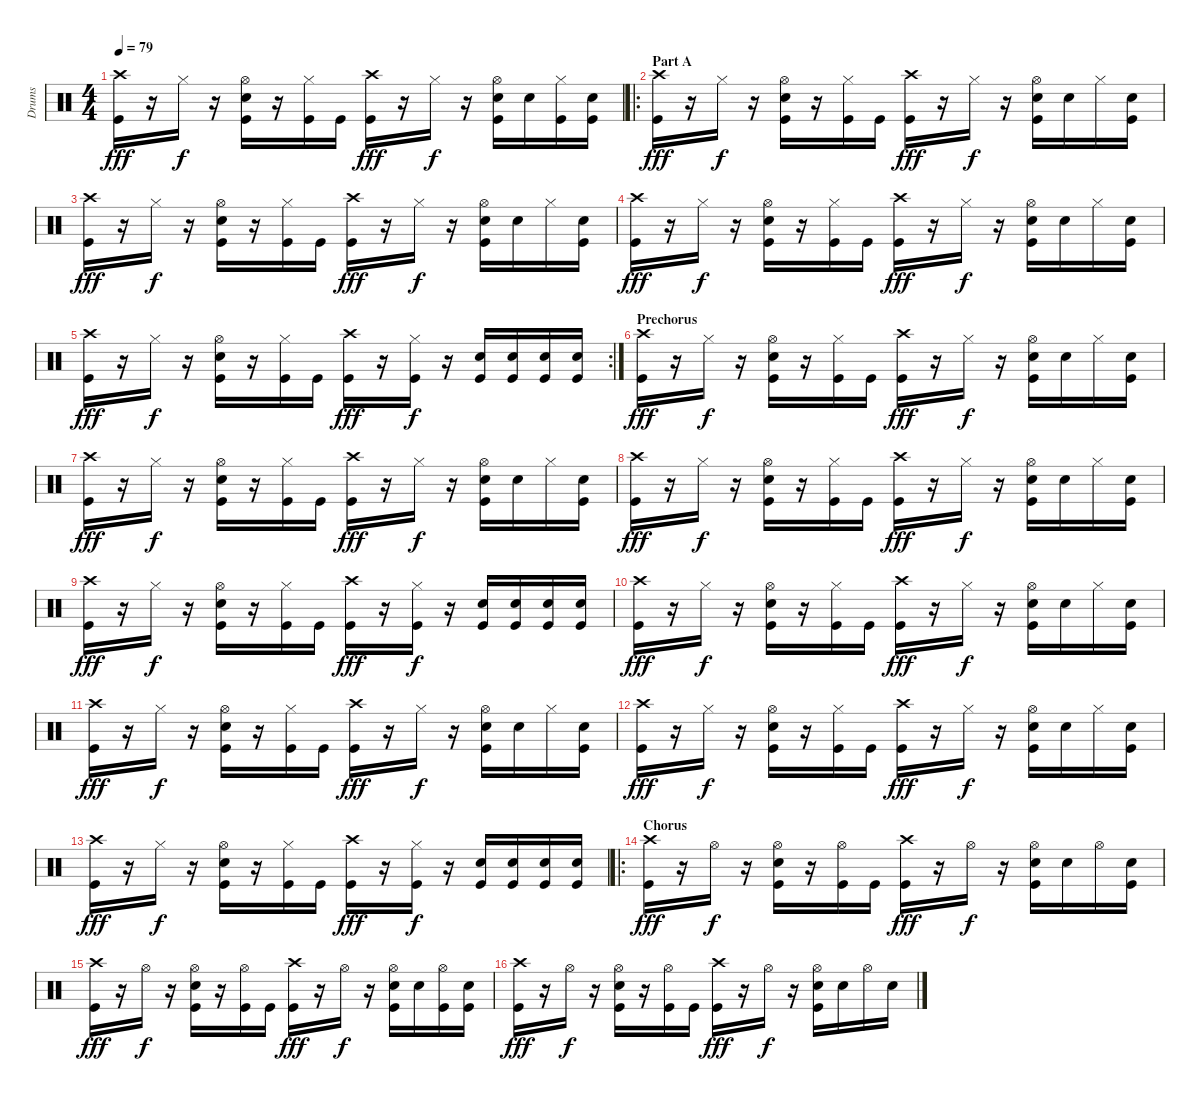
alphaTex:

\track ("Drums" "Drums") {instrument percussion}
\staff {score}
\articulation defaults
\ts (4 4)
\tempo 79
\clef neutral
\ks c
("Crash high (hit)" "Kick (hit)").16{dy fff} r.16 "Hi-Hat (closed)".16{dy f} r.16 ("Hi-Hat (open)" "Electric Snare (hit)" "Kick (hit)").16 r.16 ("Hi-Hat (closed)" "Kick (hit)").16 "Kick (hit)".16 ("Crash high (hit)" "Kick (hit)").16{dy fff} r.16 "Hi-Hat (closed)".16{dy f} r.16 ("Hi-Hat (open)" "Electric Snare (hit)" "Kick (hit)").16 "Electric Snare (hit)".16 ("Hi-Hat (closed)" "Kick (hit)").16 ("Electric Snare (hit)" "Kick (hit)").16 |
\ro
\section ("" "Part A")
("Crash high (hit)" "Kick (hit)").16{dy fff volume 11} r.16 "Hi-Hat (closed)".16{dy f} r.16 ("Hi-Hat (open)" "Electric Snare (hit)" "Kick (hit)").16 r.16 ("Hi-Hat (closed)" "Kick (hit)").16 "Kick (hit)".16 ("Crash high (hit)" "Kick (hit)").16{dy fff} r.16 "Hi-Hat (closed)".16{dy f} r.16 ("Hi-Hat (open)" "Electric Snare (hit)" "Kick (hit)").16 "Electric Snare (hit)".16 "Hi-Hat (closed)".16 ("Electric Snare (hit)" "Kick (hit)").16 |
("Crash high (hit)" "Kick (hit)").16{dy fff volume 11} r.16 "Hi-Hat (closed)".16{dy f} r.16 ("Hi-Hat (open)" "Electric Snare (hit)" "Kick (hit)").16 r.16 ("Hi-Hat (closed)" "Kick (hit)").16 "Kick (hit)".16 ("Crash high (hit)" "Kick (hit)").16{dy fff} r.16 "Hi-Hat (closed)".16{dy f} r.16 ("Hi-Hat (open)" "Electric Snare (hit)" "Kick (hit)").16 "Electric Snare (hit)".16 "Hi-Hat (closed)".16 ("Electric Snare (hit)" "Kick (hit)").16 |
("Crash high (hit)" "Kick (hit)").16{dy fff volume 11} r.16 "Hi-Hat (closed)".16{dy f} r.16 ("Hi-Hat (open)" "Electric Snare (hit)" "Kick (hit)").16 r.16 ("Hi-Hat (closed)" "Kick (hit)").16 "Kick (hit)".16 ("Crash high (hit)" "Kick (hit)").16{dy fff} r.16 "Hi-Hat (closed)".16{dy f} r.16 ("Hi-Hat (open)" "Electric Snare (hit)" "Kick (hit)").16 "Electric Snare (hit)".16 "Hi-Hat (closed)".16 ("Electric Snare (hit)" "Kick (hit)").16 |
\rc 2
("Crash high (hit)" "Kick (hit)").16{dy fff} r.16 "Hi-Hat (closed)".16{dy f} r.16 ("Hi-Hat (open)" "Electric Snare (hit)" "Kick (hit)").16 r.16 ("Hi-Hat (closed)" "Kick (hit)").16 "Kick (hit)".16 ("Crash high (hit)" "Kick (hit)").16{dy fff} r.16 ("Hi-Hat (closed)" "Kick (hit)").16{dy f} r.16 ("Electric Snare (hit)" "Kick (hit)").16 ("Electric Snare (hit)" "Kick (hit)").16 ("Electric Snare (hit)" "Kick (hit)").16 ("Electric Snare (hit)" "Kick (hit)").16 |
\section ("" "Prechorus")
("Crash high (hit)" "Kick (hit)").16{dy fff volume 11} r.16 "Hi-Hat (closed)".16{dy f} r.16 ("Hi-Hat (open)" "Electric Snare (hit)" "Kick (hit)").16 r.16 ("Hi-Hat (closed)" "Kick (hit)").16 "Kick (hit)".16 ("Crash high (hit)" "Kick (hit)").16{dy fff} r.16 "Hi-Hat (closed)".16{dy f} r.16 ("Hi-Hat (open)" "Electric Snare (hit)" "Kick (hit)").16 "Electric Snare (hit)".16 "Hi-Hat (closed)".16 ("Electric Snare (hit)" "Kick (hit)").16 |
("Crash high (hit)" "Kick (hit)").16{dy fff volume 11} r.16 "Hi-Hat (closed)".16{dy f} r.16 ("Hi-Hat (open)" "Electric Snare (hit)" "Kick (hit)").16 r.16 ("Hi-Hat (closed)" "Kick (hit)").16 "Kick (hit)".16 ("Crash high (hit)" "Kick (hit)").16{dy fff} r.16 "Hi-Hat (closed)".16{dy f} r.16 ("Hi-Hat (open)" "Electric Snare (hit)" "Kick (hit)").16 "Electric Snare (hit)".16 "Hi-Hat (closed)".16 ("Electric Snare (hit)" "Kick (hit)").16 |
("Crash high (hit)" "Kick (hit)").16{dy fff volume 11} r.16 "Hi-Hat (closed)".16{dy f} r.16 ("Hi-Hat (open)" "Electric Snare (hit)" "Kick (hit)").16 r.16 ("Hi-Hat (closed)" "Kick (hit)").16 "Kick (hit)".16 ("Crash high (hit)" "Kick (hit)").16{dy fff} r.16 "Hi-Hat (closed)".16{dy f} r.16 ("Hi-Hat (open)" "Electric Snare (hit)" "Kick (hit)").16 "Electric Snare (hit)".16 "Hi-Hat (closed)".16 ("Electric Snare (hit)" "Kick (hit)").16 |
("Crash high (hit)" "Kick (hit)").16{dy fff} r.16 "Hi-Hat (closed)".16{dy f} r.16 ("Hi-Hat (open)" "Electric Snare (hit)" "Kick (hit)").16 r.16 ("Hi-Hat (closed)" "Kick (hit)").16 "Kick (hit)".16 ("Crash high (hit)" "Kick (hit)").16{dy fff} r.16 ("Hi-Hat (closed)" "Kick (hit)").16{dy f} r.16 ("Electric Snare (hit)" "Kick (hit)").16 ("Electric Snare (hit)" "Kick (hit)").16 ("Electric Snare (hit)" "Kick (hit)").16 ("Electric Snare (hit)" "Kick (hit)").16 |
("Crash high (hit)" "Kick (hit)").16{dy fff volume 11} r.16 "Hi-Hat (closed)".16{dy f} r.16 ("Hi-Hat (open)" "Electric Snare (hit)" "Kick (hit)").16 r.16 ("Hi-Hat (closed)" "Kick (hit)").16 "Kick (hit)".16 ("Crash high (hit)" "Kick (hit)").16{dy fff} r.16 "Hi-Hat (closed)".16{dy f} r.16 ("Hi-Hat (open)" "Electric Snare (hit)" "Kick (hit)").16 "Electric Snare (hit)".16 "Hi-Hat (closed)".16 ("Electric Snare (hit)" "Kick (hit)").16 |
("Crash high (hit)" "Kick (hit)").16{dy fff volume 11} r.16 "Hi-Hat (closed)".16{dy f} r.16 ("Hi-Hat (open)" "Electric Snare (hit)" "Kick (hit)").16 r.16 ("Hi-Hat (closed)" "Kick (hit)").16 "Kick (hit)".16 ("Crash high (hit)" "Kick (hit)").16{dy fff} r.16 "Hi-Hat (closed)".16{dy f} r.16 ("Hi-Hat (open)" "Electric Snare (hit)" "Kick (hit)").16 "Electric Snare (hit)".16 "Hi-Hat (closed)".16 ("Electric Snare (hit)" "Kick (hit)").16 |
("Crash high (hit)" "Kick (hit)").16{dy fff volume 11} r.16 "Hi-Hat (closed)".16{dy f} r.16 ("Hi-Hat (open)" "Electric Snare (hit)" "Kick (hit)").16 r.16 ("Hi-Hat (closed)" "Kick (hit)").16 "Kick (hit)".16 ("Crash high (hit)" "Kick (hit)").16{dy fff} r.16 "Hi-Hat (closed)".16{dy f} r.16 ("Hi-Hat (open)" "Electric Snare (hit)" "Kick (hit)").16 "Electric Snare (hit)".16 "Hi-Hat (closed)".16 ("Electric Snare (hit)" "Kick (hit)").16 |
("Crash high (hit)" "Kick (hit)").16{dy fff} r.16 "Hi-Hat (closed)".16{dy f} r.16 ("Hi-Hat (open)" "Electric Snare (hit)" "Kick (hit)").16 r.16 ("Hi-Hat (closed)" "Kick (hit)").16 "Kick (hit)".16 ("Crash high (hit)" "Kick (hit)").16{dy fff} r.16 ("Hi-Hat (closed)" "Kick (hit)").16{dy f} r.16 ("Electric Snare (hit)" "Kick (hit)").16 ("Electric Snare (hit)" "Kick (hit)").16 ("Electric Snare (hit)" "Kick (hit)").16 ("Electric Snare (hit)" "Kick (hit)").16 |
\ro
\section ("" "Chorus")
("Crash high (hit)" "Kick (hit)").16{dy fff volume 13} r.16 "Hi-Hat (open)".16{dy f} r.16 ("Hi-Hat (open)" "Electric Snare (hit)" "Kick (hit)").16 r.16 ("Hi-Hat (open)" "Kick (hit)").16 "Kick (hit)".16 ("Crash high (hit)" "Kick (hit)").16{dy fff} r.16 "Hi-Hat (open)".16{dy f} r.16 ("Hi-Hat (open)" "Electric Snare (hit)" "Kick (hit)").16 "Electric Snare (hit)".16 "Hi-Hat (open)".16 ("Electric Snare (hit)" "Kick (hit)").16 |
("Crash high (hit)" "Kick (hit)").16{dy fff} r.16 "Hi-Hat (open)".16{dy f} r.16 ("Hi-Hat (open)" "Electric Snare (hit)" "Kick (hit)").16 r.16 ("Hi-Hat (open)" "Kick (hit)").16 "Kick (hit)".16 ("Crash high (hit)" "Kick (hit)").16{dy fff} r.16 "Hi-Hat (open)".16{dy f} r.16 ("Hi-Hat (open)" "Electric Snare (hit)" "Kick (hit)").16 "Electric Snare (hit)".16 ("Hi-Hat (open)" "Kick (hit)").16 ("Electric Snare (hit)" "Kick (hit)").16 |
("Crash high (hit)" "Kick (hit)").16{dy fff} r.16 "Hi-Hat (open)".16{dy f} r.16 ("Hi-Hat (open)" "Electric Snare (hit)" "Kick (hit)").16 r.16 ("Hi-Hat (open)" "Kick (hit)").16 "Kick (hit)".16 ("Crash high (hit)" "Kick (hit)").16{dy fff} r.16 "Hi-Hat (open)".16{dy f} r.16 ("Hi-Hat (open)" "Electric Snare (hit)" "Kick (hit)").16 "Electric Snare (hit)".16 "Hi-Hat (open)".16 "Electric Snare (hit)".16
